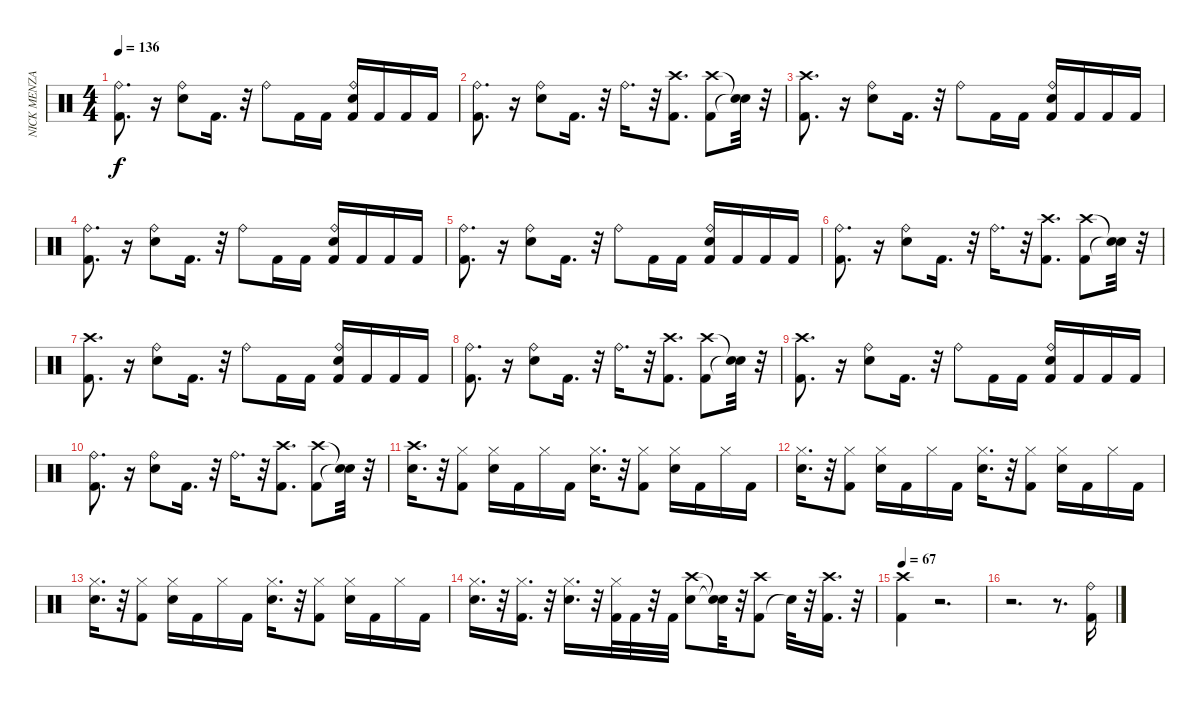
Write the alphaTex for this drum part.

\track ("NICK MENZA" "NICK MENZA") {instrument percussion}
\staff {score}
\articulation defaults
\ts (4 4)
\tempo 136
\clef neutral
\ks c
("Kick (hit) 2" "Ride (bell)").8{d dy f} r.16 ("Ride (bell)" "Snare (hit) 2").8 "Kick (hit) 2".16{d} r.32 "Ride (bell)".8 "Kick (hit) 2".16 "Kick (hit) 2".16 ("Snare (hit) 2" "Ride (bell)" "Kick (hit) 2").16 "Kick (hit) 2".16 "Kick (hit) 2".16 "Kick (hit) 2".16 |
("Kick (hit) 2" "Ride (bell)").8{d} r.16 ("Snare (hit) 2" "Ride (bell)").8 "Kick (hit) 2".16{d} r.32 "Ride (bell)".16{d} r.32 ("Kick (hit) 2" "Crash high (hit)").8{d} ("Kick (hit) 2" "Crash high (hit)").8 ("Snare (hit)"{t} "Snare (hit)"{t}).32 r.32 |
("Crash high (hit)" "Kick (hit) 2").8{d} r.16 ("Snare (hit) 2" "Ride (bell)").8 "Kick (hit) 2".16{d} r.32 "Ride (bell)".8 "Kick (hit) 2".16 "Kick (hit) 2".16 ("Snare (hit) 2" "Ride (bell)" "Kick (hit) 2").16 "Kick (hit) 2".16 "Kick (hit) 2".16 "Kick (hit) 2".16 |
("Ride (bell)" "Kick (hit) 2").8{d} r.16 ("Snare (hit) 2" "Ride (bell)").8 "Kick (hit) 2".16{d} r.32 "Ride (bell)".8 "Kick (hit) 2".16 "Kick (hit) 2".16 ("Snare (hit) 2" "Ride (bell)" "Kick (hit) 2").16 "Kick (hit) 2".16 "Kick (hit) 2".16 "Kick (hit) 2".16 |
("Ride (bell)" "Kick (hit) 2").8{d} r.16 ("Ride (bell)" "Snare (hit) 2").8 "Kick (hit) 2".16{d} r.32 "Ride (bell)".8 "Kick (hit) 2".16 "Kick (hit) 2".16 ("Ride (bell)" "Snare (hit) 2" "Kick (hit) 2").16 "Kick (hit) 2".16 "Kick (hit) 2".16 "Kick (hit) 2".16 |
("Kick (hit) 2" "Ride (bell)").8{d} r.16 ("Ride (bell)" "Snare (hit) 2").8 "Kick (hit) 2".16{d} r.32 "Ride (bell)".16{d} r.32 ("Crash high (hit)" "Kick (hit) 2").8{d} ("Crash high (hit)" "Kick (hit) 2").8 ("Snare (hit)"{t} "Snare (hit)"{t}).32 r.32 |
("Crash high (hit)" "Kick (hit) 2").8{d} r.16 ("Snare (hit) 2" "Ride (bell)").8 "Kick (hit) 2".16{d} r.32 "Ride (bell)".8 "Kick (hit) 2".16 "Kick (hit) 2".16 ("Ride (bell)" "Kick (hit) 2" "Snare (hit) 2").16 "Kick (hit) 2".16 "Kick (hit) 2".16 "Kick (hit) 2".16 |
("Ride (bell)" "Kick (hit) 2").8{d} r.16 ("Ride (bell)" "Snare (hit) 2").8 "Kick (hit) 2".16{d} r.32 "Ride (bell)".16{d} r.32 ("Kick (hit) 2" "Crash high (hit)").8{d} ("Kick (hit) 2" "Crash high (hit)").8 ("Snare (hit)"{t} "Snare (hit)"{t}).32 r.32 |
("Crash high (hit)" "Kick (hit) 2").8{d} r.16 ("Snare (hit) 2" "Ride (bell)").8 "Kick (hit) 2".16{d} r.32 "Ride (bell)".8 "Kick (hit) 2".16 "Kick (hit) 2".16 ("Ride (bell)" "Snare (hit) 2" "Kick (hit) 2").16 "Kick (hit) 2".16 "Kick (hit) 2".16 "Kick (hit) 2".16 |
("Kick (hit) 2" "Ride (bell)").8{d} r.16 ("Ride (bell)" "Snare (hit) 2").8 "Kick (hit) 2".16{d} r.32 "Ride (bell)".16{d} r.32 ("Kick (hit) 2" "Crash high (hit)").8{d} ("Kick (hit) 2" "Crash high (hit)").8 ("Snare (hit)"{t} "Snare (hit)"{t}).32 r.32 |
("Snare (hit) 2" "Crash high (hit)").16{d} r.32 ("Hi-Hat (closed)" "Kick (hit) 2").8 ("Hi-Hat (closed)" "Snare (hit) 2").16 "Kick (hit) 2".16 "Hi-Hat (closed)".16 "Kick (hit) 2".16 ("Hi-Hat (closed)" "Snare (hit) 2").16{d} r.32 ("Kick (hit) 2" "Hi-Hat (closed)").8 ("Hi-Hat (closed)" "Snare (hit) 2").16 "Kick (hit) 2".16 "Hi-Hat (closed)".16 "Kick (hit) 2".16 |
("Snare (hit) 2" "Hi-Hat (closed)").16{d} r.32 ("Hi-Hat (closed)" "Kick (hit) 2").8 ("Hi-Hat (closed)" "Snare (hit) 2").16 "Kick (hit) 2".16 "Hi-Hat (closed)".16 "Kick (hit) 2".16 ("Hi-Hat (closed)" "Snare (hit) 2").16{d} r.32 ("Kick (hit) 2" "Hi-Hat (closed)").8 ("Hi-Hat (closed)" "Snare (hit) 2").16 "Kick (hit) 2".16 "Hi-Hat (closed)".16 "Kick (hit) 2".16 |
("Snare (hit) 2" "Hi-Hat (closed)").16{d} r.32 ("Hi-Hat (closed)" "Kick (hit) 2").8 ("Snare (hit) 2" "Hi-Hat (closed)").16 "Kick (hit) 2".16 "Hi-Hat (closed)".16 "Kick (hit) 2".16 ("Snare (hit) 2" "Hi-Hat (closed)").16{d} r.32 ("Kick (hit) 2" "Hi-Hat (closed)").8 ("Hi-Hat (closed)" "Snare (hit) 2").16 "Kick (hit) 2".16 "Hi-Hat (closed)".16 "Kick (hit) 2".16 |
("Hi-Hat (closed)" "Snare (hit) 2").16{d} r.32 ("Kick (hit) 2" "Hi-Hat (closed)").16{d} r.32 ("Snare (hit) 2" "Hi-Hat (closed)").16{d} r.32 ("Kick (hit) 2" "Hi-Hat (closed)").32 "Kick (hit) 2".32 r.32 "Kick (hit) 2".32 ("Snare (hit) 2" "Crash high (hit)").8 ("Snare (hit)"{t} "Snare (hit)"{t}).32 r.32 ("Kick (hit) 2" "Crash high (hit)").8 "Snare (hit)"{t}.32 r.32 ("Kick (hit) 2" "Crash high (hit)").16{d} r.32 |
\tempo 67
("Crash high (hit)" "Kick (hit) 2").4 r.2{d} |
r.2{d} r.8{d} ("Kick (hit) 2" "Ride (bell)").16
